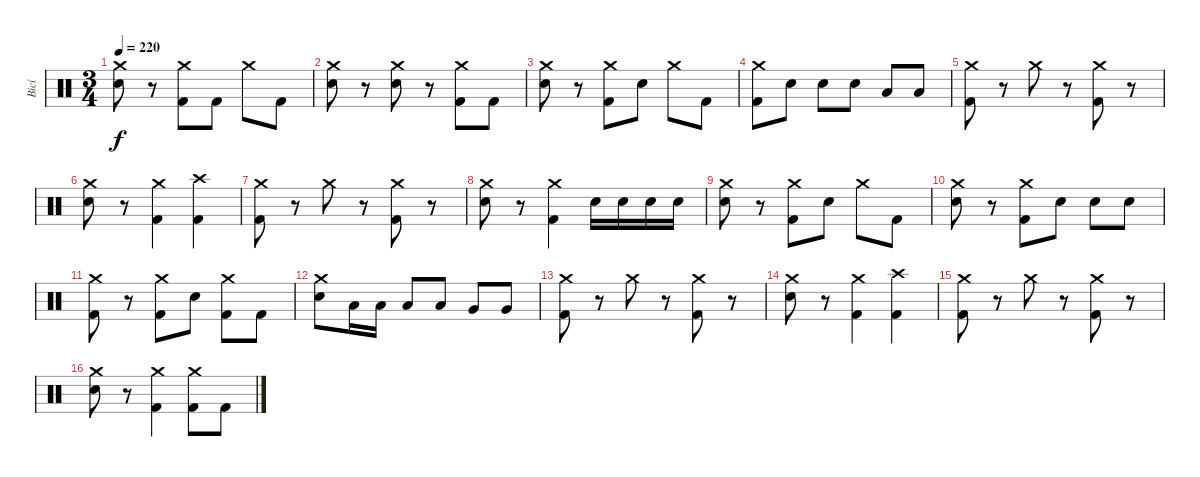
\track ("Bicí" "Bicí") {instrument percussion}
\staff {score}
\articulation defaults
\ts (3 4)
\tempo 220
\clef neutral
\ks c
("Crash medium (hit)" "Electric Snare (hit)").8{dy f} r.8 ("Crash medium (hit)" "Kick (hit) 2").8 "Kick (hit) 2".8 "Crash medium (hit)".8 "Kick (hit) 2".8 |
("Crash medium (hit)" "Electric Snare (hit)").8 r.8 ("Crash medium (hit)" "Electric Snare (hit)").8 r.8 ("Crash medium (hit)" "Kick (hit) 2").8 "Kick (hit) 2".8 |
("Crash medium (hit)" "Electric Snare (hit)").8 r.8 ("Crash medium (hit)" "Kick (hit) 2").8 "Electric Snare (hit)".8 "Crash medium (hit)".8 "Kick (hit) 2".8 |
("Crash medium (hit)" "Kick (hit) 2").8 "Electric Snare (hit)".8 "Electric Snare (hit)".8 "Electric Snare (hit)".8 "Low Tom (hit)".8 "Low Tom (hit)".8 |
("Crash medium (hit)" "Kick (hit) 2").8 r.8 "Crash medium (hit)".8 r.8 ("Crash medium (hit)" "Kick (hit) 2").8 r.8 |
("Crash medium (hit)" "Electric Snare (hit)").8 r.8 ("Crash medium (hit)" "Kick (hit) 2").4 ("Crash high (hit)" "Kick (hit) 2").4 |
("Crash medium (hit)" "Kick (hit) 2").8 r.8 "Crash medium (hit)".8 r.8 ("Crash medium (hit)" "Kick (hit) 2").8 r.8 |
("Crash medium (hit)" "Electric Snare (hit)").8 r.8 ("Crash medium (hit)" "Kick (hit) 2").4 "Electric Snare (hit)".16 "Electric Snare (hit)".16 "Electric Snare (hit)".16 "Electric Snare (hit)".16 |
("Crash medium (hit)" "Electric Snare (hit)").8 r.8 ("Crash medium (hit)" "Kick (hit) 2").8 "Electric Snare (hit)".8 "Crash medium (hit)".8 "Kick (hit) 2".8 |
("Crash medium (hit)" "Electric Snare (hit)").8 r.8 ("Crash medium (hit)" "Kick (hit) 2").8 "Electric Snare (hit)".8 "Electric Snare (hit)".8 "Electric Snare (hit)".8 |
("Crash medium (hit)" "Kick (hit) 2").8 r.8 ("Crash medium (hit)" "Kick (hit) 2").8 "Electric Snare (hit)".8 ("Crash medium (hit)" "Kick (hit) 2").8 "Kick (hit) 2".8 |
("Crash medium (hit)" "Electric Snare (hit)").8 "Low Tom (hit)".16 "Low Tom (hit)".16 "Low Tom (hit)".8 "Low Tom (hit)".8 "Very Low Tom (hit)".8 "Very Low Tom (hit)".8 |
("Crash medium (hit)" "Kick (hit) 2").8 r.8 "Crash medium (hit)".8 r.8 ("Crash medium (hit)" "Kick (hit) 2").8 r.8 |
("Crash medium (hit)" "Electric Snare (hit)").8 r.8 ("Crash medium (hit)" "Kick (hit) 2").4 ("Crash high (hit)" "Kick (hit) 2").4 |
("Crash medium (hit)" "Kick (hit) 2").8 r.8 "Crash medium (hit)".8 r.8 ("Crash medium (hit)" "Kick (hit) 2").8 r.8 |
("Crash medium (hit)" "Electric Snare (hit)").8 r.8 ("Crash medium (hit)" "Kick (hit) 2").4 ("Crash medium (hit)" "Kick (hit) 2").8 "Kick (hit) 2".8
